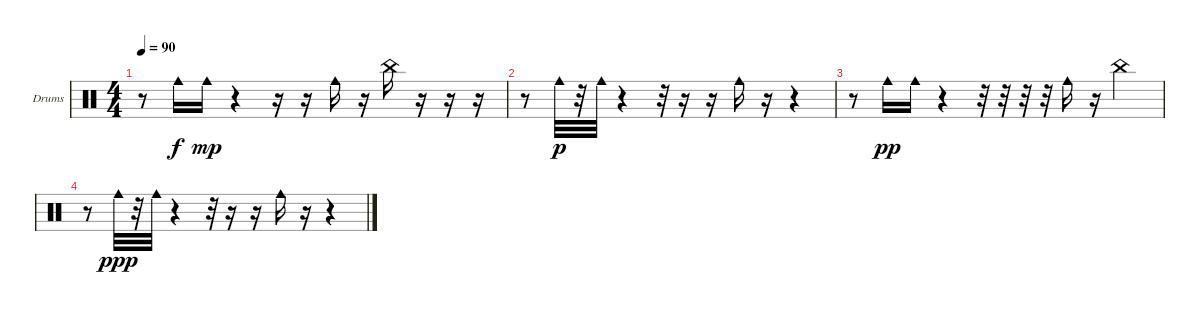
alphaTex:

\defaultSystemsLayout 4
\bracketExtendMode groupsimilarinstruments
\firstSystemTrackNameOrientation horizontal
\otherSystemsTrackNameOrientation horizontal
\track ("Drumkit" "Drums") {instrument percussion}
\staff {score}
\articulation defaults
\ts (4 4)
\tempo 90
\clef neutral
\scale
0.333333
\ks c
r.8{dy f} "Cowbell medium (hit)".16 "Cowbell medium (hit)".16{dy mp} r.4 r.16 r.16 "Cowbell medium (hit)".16 r.16 "China (hit)".16 r.16 r.16 r.16 |
\scale
0.333333 r.8 "Cowbell medium (hit)".32{dy p} r.32 "Cowbell medium (hit)".32 r.4 r.32 r.16 r.16 "Cowbell medium (hit)".16 r.16 r.4 |
\scale
0.333333 r.8 "Cowbell medium (hit)".16{dy pp} "Cowbell medium (hit)".16 r.4 r.32 r.32 r.32 r.32 "Cowbell medium (hit)".16 r.16 "China (hit)".4 |
\scale
0.333333 r.8 "Cowbell medium (hit)".32{dy ppp} r.32 "Cowbell medium (hit)".32 r.4 r.32 r.16 r.16 "Cowbell medium (hit)".16 r.16 r.4
